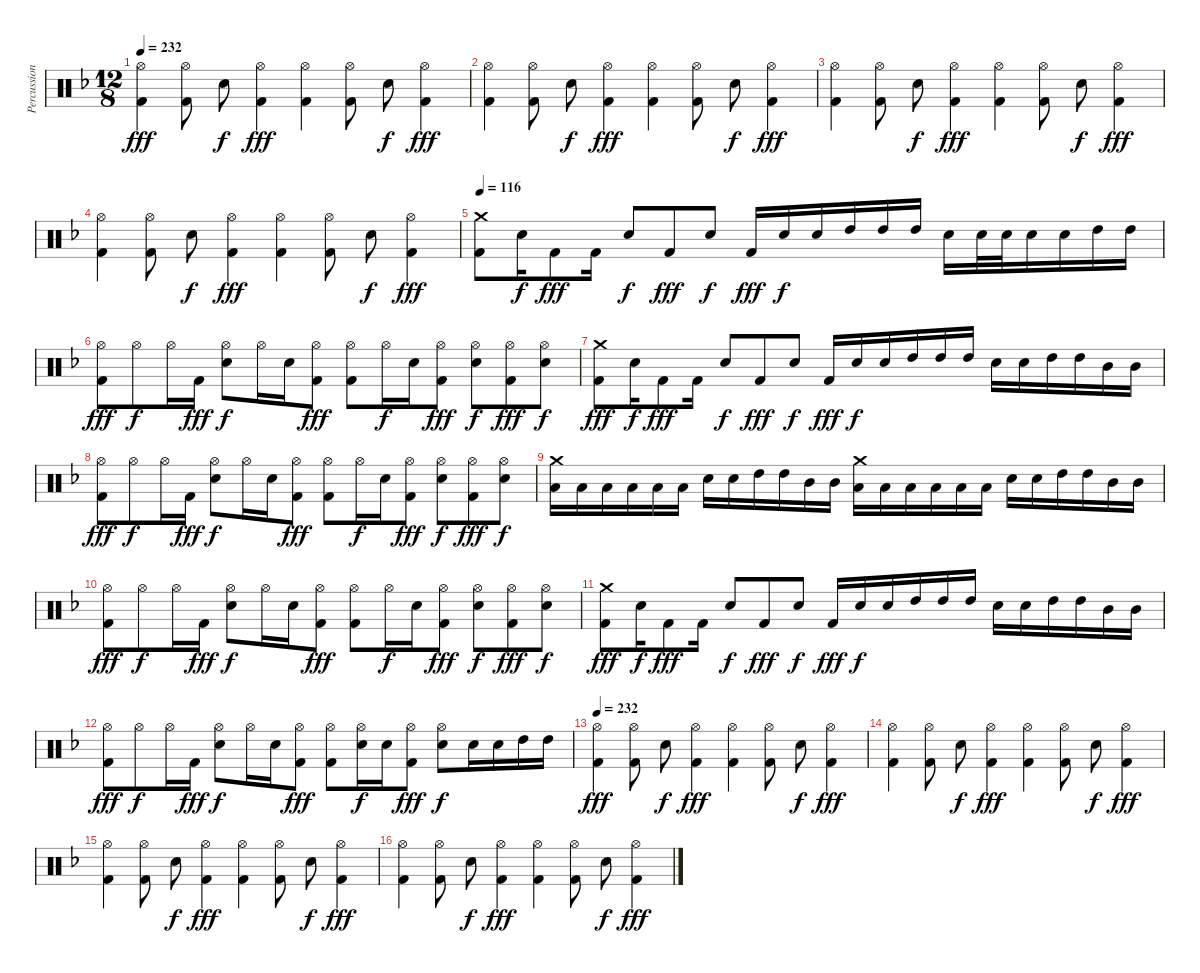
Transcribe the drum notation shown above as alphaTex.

\track ("Percussions" "Percussion") {instrument percussion}
\staff {score}
\articulation defaults
\ts (12 8)
\tempo 232
\clef neutral
\ks f
("Hi-Hat (open)" "Kick (hit) 2").4{dy fff} ("Hi-Hat (open)" "Kick (hit) 2").8 "Snare (hit) 2".8{dy f} ("Hi-Hat (open)" "Kick (hit) 2").4{dy fff} ("Hi-Hat (open)" "Kick (hit) 2").4 ("Hi-Hat (open)" "Kick (hit) 2").8 "Snare (hit) 2".8{dy f} ("Hi-Hat (open)" "Kick (hit) 2").4{dy fff} |
("Hi-Hat (open)" "Kick (hit) 2").4 ("Hi-Hat (open)" "Kick (hit) 2").8 "Snare (hit) 2".8{dy f} ("Hi-Hat (open)" "Kick (hit) 2").4{dy fff} ("Hi-Hat (open)" "Kick (hit) 2").4 ("Hi-Hat (open)" "Kick (hit) 2").8 "Snare (hit) 2".8{dy f} ("Hi-Hat (open)" "Kick (hit) 2").4{dy fff} |
("Hi-Hat (open)" "Kick (hit) 2").4 ("Hi-Hat (open)" "Kick (hit) 2").8 "Snare (hit) 2".8{dy f} ("Hi-Hat (open)" "Kick (hit) 2").4{dy fff} ("Hi-Hat (open)" "Kick (hit) 2").4 ("Hi-Hat (open)" "Kick (hit) 2").8 "Snare (hit) 2".8{dy f} ("Hi-Hat (open)" "Kick (hit) 2").4{dy fff} |
("Hi-Hat (open)" "Kick (hit) 2").4 ("Hi-Hat (open)" "Kick (hit) 2").8 "Snare (hit) 2".8{dy f} ("Hi-Hat (open)" "Kick (hit) 2").4{dy fff} ("Hi-Hat (open)" "Kick (hit) 2").4 ("Hi-Hat (open)" "Kick (hit) 2").8 "Snare (hit) 2".8{dy f} ("Hi-Hat (open)" "Kick (hit) 2").4{dy fff} |
\tempo 116
("Crash medium (hit)" "Kick (hit) 2").8 "Snare (hit) 2".16{dy f} "Kick (hit) 2".8{dy fff} "Kick (hit) 2".16 "Snare (hit) 2".8{dy f} "Kick (hit) 2".8{dy fff} "Snare (hit) 2".8{dy f} "Kick (hit) 2".16{dy fff} "Snare (hit) 2".16{dy f} "Snare (hit) 2".16 "High Tom (hit)".16 "High Tom (hit)".16 "High Tom (hit)".16 "Snare (hit) 2".16 "Snare (hit) 2".32 "Snare (hit) 2".32 "Snare (hit) 2".16 "Snare (hit) 2".16 "High Tom (hit)".16 "High Tom (hit)".16 |
("Hi-Hat (open)" "Kick (hit) 2").8{dy fff} "Hi-Hat (open)".8{dy f} "Hi-Hat (open)".16 "Kick (hit) 2".16{dy fff} ("Hi-Hat (open)" "Snare (hit) 2").8{dy f} "Hi-Hat (open)".16 "Snare (hit) 2".16 ("Hi-Hat (open)" "Kick (hit) 2").8{dy fff} ("Hi-Hat (open)" "Kick (hit) 2").8 "Hi-Hat (open)".16{dy f} "Snare (hit) 2".16 ("Hi-Hat (open)" "Kick (hit) 2").8{dy fff} ("Hi-Hat (open)" "Snare (hit) 2").8{dy f} ("Hi-Hat (open)" "Kick (hit) 2").8{dy fff} ("Hi-Hat (open)" "Snare (hit) 2").8{dy f} |
("Crash medium (hit)" "Kick (hit) 2").8{dy fff} "Snare (hit) 2".16{dy f} "Kick (hit) 2".8{dy fff} "Kick (hit) 2".16 "Snare (hit) 2".8{dy f} "Kick (hit) 2".8{dy fff} "Snare (hit) 2".8{dy f} "Kick (hit) 2".16{dy fff} "Snare (hit) 2".16{dy f} "Snare (hit) 2".16 "High Tom (hit)".16 "High Tom (hit)".16 "High Tom (hit)".16 "Snare (hit) 2".16 "Snare (hit) 2".16 "High Tom (hit)".16 "High Tom (hit)".16 "Mid Tom (hit)".16 "Mid Tom (hit)".16 |
("Hi-Hat (open)" "Kick (hit) 2").8{dy fff} "Hi-Hat (open)".8{dy f} "Hi-Hat (open)".16 "Kick (hit) 2".16{dy fff} ("Hi-Hat (open)" "Snare (hit) 2").8{dy f} "Hi-Hat (open)".16 "Snare (hit) 2".16 ("Hi-Hat (open)" "Kick (hit) 2").8{dy fff} ("Hi-Hat (open)" "Kick (hit) 2").8 "Hi-Hat (open)".16{dy f} "Snare (hit) 2".16 ("Hi-Hat (open)" "Kick (hit) 2").8{dy fff} ("Hi-Hat (open)" "Snare (hit) 2").8{dy f} ("Hi-Hat (open)" "Kick (hit) 2").8{dy fff} ("Hi-Hat (open)" "Snare (hit) 2").8{dy f} |
("Crash medium (hit)" "Low Tom (hit)").16 "Low Tom (hit)".16 "Low Tom (hit)".16 "Low Tom (hit)".16 "Low Tom (hit)".16 "Low Tom (hit)".16 "Snare (hit) 2".16 "Snare (hit) 2".16 "High Tom (hit)".16 "High Tom (hit)".16 "Mid Tom (hit)".16 "Mid Tom (hit)".16 ("Crash medium (hit)" "Low Tom (hit)").16 "Low Tom (hit)".16 "Low Tom (hit)".16 "Low Tom (hit)".16 "Low Tom (hit)".16 "Low Tom (hit)".16 "Snare (hit) 2".16 "Snare (hit) 2".16 "High Tom (hit)".16 "High Tom (hit)".16 "Mid Tom (hit)".16 "Mid Tom (hit)".16 |
("Hi-Hat (open)" "Kick (hit) 2").8{dy fff} "Hi-Hat (open)".8{dy f} "Hi-Hat (open)".16 "Kick (hit) 2".16{dy fff} ("Hi-Hat (open)" "Snare (hit) 2").8{dy f} "Hi-Hat (open)".16 "Snare (hit) 2".16 ("Hi-Hat (open)" "Kick (hit) 2").8{dy fff} ("Hi-Hat (open)" "Kick (hit) 2").8 "Hi-Hat (open)".16{dy f} "Snare (hit) 2".16 ("Hi-Hat (open)" "Kick (hit) 2").8{dy fff} ("Hi-Hat (open)" "Snare (hit) 2").8{dy f} ("Hi-Hat (open)" "Kick (hit) 2").8{dy fff} ("Hi-Hat (open)" "Snare (hit) 2").8{dy f} |
("Crash medium (hit)" "Kick (hit) 2").8{dy fff} "Snare (hit) 2".16{dy f} "Kick (hit) 2".8{dy fff} "Kick (hit) 2".16 "Snare (hit) 2".8{dy f} "Kick (hit) 2".8{dy fff} "Snare (hit) 2".8{dy f} "Kick (hit) 2".16{dy fff} "Snare (hit) 2".16{dy f} "Snare (hit) 2".16 "High Tom (hit)".16 "High Tom (hit)".16 "High Tom (hit)".16 "Snare (hit) 2".16 "Snare (hit) 2".16 "High Tom (hit)".16 "High Tom (hit)".16 "Mid Tom (hit)".16 "Mid Tom (hit)".16 |
("Hi-Hat (open)" "Kick (hit) 2").8{dy fff} "Hi-Hat (open)".8{dy f} "Hi-Hat (open)".16 "Kick (hit) 2".16{dy fff} ("Hi-Hat (open)" "Snare (hit) 2").8{dy f} "Hi-Hat (open)".16 "Snare (hit) 2".16 ("Hi-Hat (open)" "Kick (hit) 2").8{dy fff} ("Hi-Hat (open)" "Kick (hit) 2").8 ("Hi-Hat (open)" "Snare (hit) 2").16{dy f} "Snare (hit) 2".16 ("Hi-Hat (open)" "Kick (hit) 2").8{dy fff} ("Hi-Hat (open)" "Snare (hit) 2").8{dy f} "Snare (hit) 2".16 "Snare (hit) 2".16 "High Tom (hit)".16 "High Tom (hit)".16 |
\tempo 232
("Hi-Hat (open)" "Kick (hit) 2").4{dy fff} ("Hi-Hat (open)" "Kick (hit) 2").8 "Snare (hit) 2".8{dy f} ("Hi-Hat (open)" "Kick (hit) 2").4{dy fff} ("Hi-Hat (open)" "Kick (hit) 2").4 ("Hi-Hat (open)" "Kick (hit) 2").8 "Snare (hit) 2".8{dy f} ("Hi-Hat (open)" "Kick (hit) 2").4{dy fff} |
("Hi-Hat (open)" "Kick (hit) 2").4 ("Hi-Hat (open)" "Kick (hit) 2").8 "Snare (hit) 2".8{dy f} ("Hi-Hat (open)" "Kick (hit) 2").4{dy fff} ("Hi-Hat (open)" "Kick (hit) 2").4 ("Hi-Hat (open)" "Kick (hit) 2").8 "Snare (hit) 2".8{dy f} ("Hi-Hat (open)" "Kick (hit) 2").4{dy fff} |
("Hi-Hat (open)" "Kick (hit) 2").4 ("Hi-Hat (open)" "Kick (hit) 2").8 "Snare (hit) 2".8{dy f} ("Hi-Hat (open)" "Kick (hit) 2").4{dy fff} ("Hi-Hat (open)" "Kick (hit) 2").4 ("Hi-Hat (open)" "Kick (hit) 2").8 "Snare (hit) 2".8{dy f} ("Hi-Hat (open)" "Kick (hit) 2").4{dy fff} |
("Hi-Hat (open)" "Kick (hit) 2").4 ("Hi-Hat (open)" "Kick (hit) 2").8 "Snare (hit) 2".8{dy f} ("Hi-Hat (open)" "Kick (hit) 2").4{dy fff} ("Hi-Hat (open)" "Kick (hit) 2").4 ("Hi-Hat (open)" "Kick (hit) 2").8 "Snare (hit) 2".8{dy f} ("Hi-Hat (open)" "Kick (hit) 2").4{dy fff}
